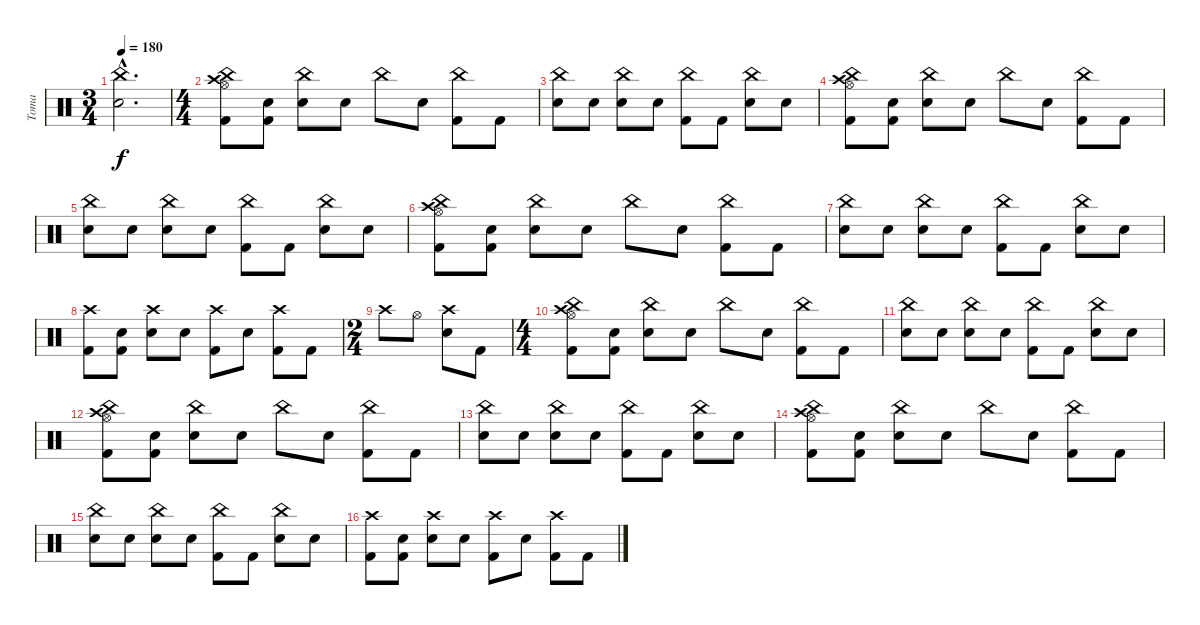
\track ("Toma" "Toma") {instrument percussion}
\staff {score}
\articulation defaults
\ts (3 4)
\tempo 180
\clef neutral
\ks c
("Electric Snare (hit)"{hac} "China (hit)"{hac}).2{d dy f} |
\ts (4 4)
("China (hit)" "Kick (hit) 2" "Hi-Hat (open)" "Crash high (hit)").8 ("Kick (hit) 2" "Snare (hit)").8 ("China (hit)" "Snare (hit)").8 "Snare (hit)".8 "China (hit)".8 "Snare (hit)".8 ("China (hit)" "Kick (hit) 2").8 "Kick (hit) 2".8 |
("China (hit)" "Electric Snare (hit)").8 "Snare (hit)".8 ("China (hit)" "Snare (hit)").8 "Snare (hit)".8 ("China (hit)" "Kick (hit) 2").8 "Kick (hit) 2".8 ("China (hit)" "Snare (hit)").8 "Snare (hit)".8 |
("China (hit)" "Kick (hit) 2" "Hi-Hat (open)" "Crash high (hit)").8 ("Kick (hit) 2" "Snare (hit)").8 ("China (hit)" "Snare (hit)").8 "Snare (hit)".8 "China (hit)".8 "Snare (hit)".8 ("China (hit)" "Kick (hit) 2").8 "Kick (hit) 2".8 |
("China (hit)" "Electric Snare (hit)").8 "Snare (hit)".8 ("China (hit)" "Snare (hit)").8 "Snare (hit)".8 ("China (hit)" "Kick (hit) 2").8 "Kick (hit) 2".8 ("China (hit)" "Snare (hit)").8 "Snare (hit)".8 |
("China (hit)" "Kick (hit) 2" "Hi-Hat (open)" "Crash high (hit)").8 ("Kick (hit) 2" "Snare (hit)").8 ("China (hit)" "Snare (hit)").8 "Snare (hit)".8 "China (hit)".8 "Snare (hit)".8 ("China (hit)" "Kick (hit) 2").8 "Kick (hit) 2".8 |
("China (hit)" "Electric Snare (hit)").8 "Snare (hit)".8 ("China (hit)" "Snare (hit)").8 "Snare (hit)".8 ("China (hit)" "Kick (hit) 2").8 "Kick (hit) 2".8 ("China (hit)" "Snare (hit)").8 "Snare (hit)".8 |
("Crash high (hit)" "Kick (hit) 2").8 ("Snare (hit)" "Kick (hit) 2").8 ("Crash high (hit)" "Snare (hit)").8 "Electric Snare (hit)".8 ("Crash high (hit)" "Kick (hit) 2").8 "Snare (hit)".8 ("Crash high (hit)" "Kick (hit) 2").8 "Kick (hit) 2".8 |
\ts (2 4)
"Crash high (hit)".8 "Hi-Hat (open)".8 ("Crash high (hit)" "Snare (hit)").8 "Kick (hit) 2".8 |
\ts (4 4)
("China (hit)" "Kick (hit) 2" "Hi-Hat (open)" "Crash high (hit)").8 ("Kick (hit) 2" "Snare (hit)").8 ("China (hit)" "Snare (hit)").8 "Snare (hit)".8 "China (hit)".8 "Snare (hit)".8 ("China (hit)" "Kick (hit) 2").8 "Kick (hit) 2".8 |
("China (hit)" "Electric Snare (hit)").8 "Snare (hit)".8 ("China (hit)" "Snare (hit)").8 "Snare (hit)".8 ("China (hit)" "Kick (hit) 2").8 "Kick (hit) 2".8 ("China (hit)" "Snare (hit)").8 "Snare (hit)".8 |
("China (hit)" "Kick (hit) 2" "Hi-Hat (open)" "Crash high (hit)").8 ("Kick (hit) 2" "Snare (hit)").8 ("China (hit)" "Snare (hit)").8 "Snare (hit)".8 "China (hit)".8 "Snare (hit)".8 ("China (hit)" "Kick (hit) 2").8 "Kick (hit) 2".8 |
("China (hit)" "Electric Snare (hit)").8 "Snare (hit)".8 ("China (hit)" "Snare (hit)").8 "Snare (hit)".8 ("China (hit)" "Kick (hit) 2").8 "Kick (hit) 2".8 ("China (hit)" "Snare (hit)").8 "Snare (hit)".8 |
("China (hit)" "Kick (hit) 2" "Hi-Hat (open)" "Crash high (hit)").8 ("Kick (hit) 2" "Snare (hit)").8 ("China (hit)" "Snare (hit)").8 "Snare (hit)".8 "China (hit)".8 "Snare (hit)".8 ("China (hit)" "Kick (hit) 2").8 "Kick (hit) 2".8 |
("China (hit)" "Electric Snare (hit)").8 "Snare (hit)".8 ("China (hit)" "Snare (hit)").8 "Snare (hit)".8 ("China (hit)" "Kick (hit) 2").8 "Kick (hit) 2".8 ("China (hit)" "Snare (hit)").8 "Snare (hit)".8 |
("Crash high (hit)" "Kick (hit) 2").8 ("Snare (hit)" "Kick (hit) 2").8 ("Crash high (hit)" "Snare (hit)").8 "Electric Snare (hit)".8 ("Crash high (hit)" "Kick (hit) 2").8 "Snare (hit)".8 ("Crash high (hit)" "Kick (hit) 2").8 "Kick (hit) 2".8
